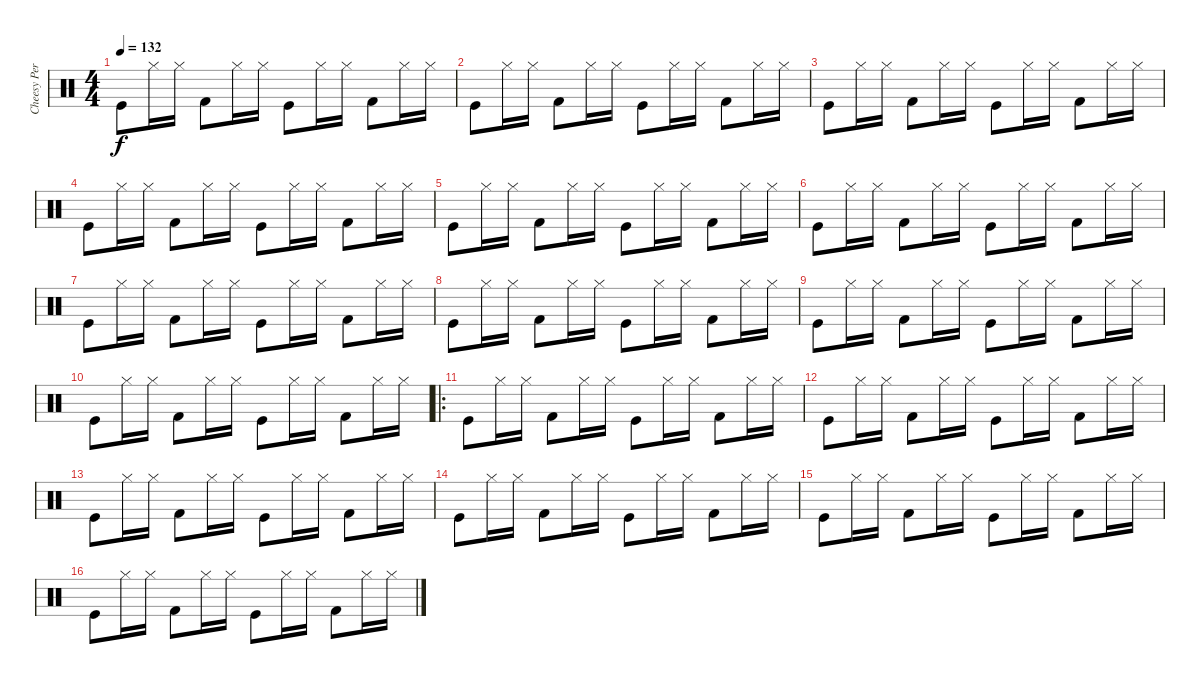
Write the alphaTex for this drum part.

\track ("Cheesy Percussion" "Cheesy Per") {instrument percussion}
\staff {score}
\articulation defaults
\ts (4 4)
\tempo 132
\clef neutral
\ks c "Kick (hit)".8{dy f} "Hi-Hat (closed)".16 "Hi-Hat (closed)".16 "Kick (hit) 2".8 "Hi-Hat (closed)".16 "Hi-Hat (closed)".16 "Kick (hit)".8 "Hi-Hat (closed)".16 "Hi-Hat (closed)".16 "Kick (hit) 2".8 "Hi-Hat (closed)".16 "Hi-Hat (closed)".16
|
"Kick (hit)".8 "Hi-Hat (closed)".16 "Hi-Hat (closed)".16 "Kick (hit) 2".8 "Hi-Hat (closed)".16 "Hi-Hat (closed)".16 "Kick (hit)".8 "Hi-Hat (closed)".16 "Hi-Hat (closed)".16 "Kick (hit) 2".8 "Hi-Hat (closed)".16 "Hi-Hat (closed)".16 |
"Kick (hit)".8 "Hi-Hat (closed)".16 "Hi-Hat (closed)".16 "Kick (hit) 2".8 "Hi-Hat (closed)".16 "Hi-Hat (closed)".16 "Kick (hit)".8 "Hi-Hat (closed)".16 "Hi-Hat (closed)".16 "Kick (hit) 2".8 "Hi-Hat (closed)".16 "Hi-Hat (closed)".16 |
"Kick (hit)".8 "Hi-Hat (closed)".16 "Hi-Hat (closed)".16 "Kick (hit) 2".8 "Hi-Hat (closed)".16 "Hi-Hat (closed)".16 "Kick (hit)".8 "Hi-Hat (closed)".16 "Hi-Hat (closed)".16 "Kick (hit) 2".8 "Hi-Hat (closed)".16 "Hi-Hat (closed)".16 |
"Kick (hit)".8 "Hi-Hat (closed)".16 "Hi-Hat (closed)".16 "Kick (hit) 2".8 "Hi-Hat (closed)".16 "Hi-Hat (closed)".16 "Kick (hit)".8 "Hi-Hat (closed)".16 "Hi-Hat (closed)".16 "Kick (hit) 2".8 "Hi-Hat (closed)".16 "Hi-Hat (closed)".16 |
"Kick (hit)".8 "Hi-Hat (closed)".16 "Hi-Hat (closed)".16 "Kick (hit) 2".8 "Hi-Hat (closed)".16 "Hi-Hat (closed)".16 "Kick (hit)".8 "Hi-Hat (closed)".16 "Hi-Hat (closed)".16 "Kick (hit) 2".8 "Hi-Hat (closed)".16 "Hi-Hat (closed)".16 |
"Kick (hit)".8 "Hi-Hat (closed)".16 "Hi-Hat (closed)".16 "Kick (hit) 2".8 "Hi-Hat (closed)".16 "Hi-Hat (closed)".16 "Kick (hit)".8 "Hi-Hat (closed)".16 "Hi-Hat (closed)".16 "Kick (hit) 2".8 "Hi-Hat (closed)".16 "Hi-Hat (closed)".16 |
"Kick (hit)".8 "Hi-Hat (closed)".16 "Hi-Hat (closed)".16 "Kick (hit) 2".8 "Hi-Hat (closed)".16 "Hi-Hat (closed)".16 "Kick (hit)".8 "Hi-Hat (closed)".16 "Hi-Hat (closed)".16 "Kick (hit) 2".8 "Hi-Hat (closed)".16 "Hi-Hat (closed)".16 |
"Kick (hit)".8 "Hi-Hat (closed)".16 "Hi-Hat (closed)".16 "Kick (hit) 2".8 "Hi-Hat (closed)".16 "Hi-Hat (closed)".16 "Kick (hit)".8 "Hi-Hat (closed)".16 "Hi-Hat (closed)".16 "Kick (hit) 2".8 "Hi-Hat (closed)".16 "Hi-Hat (closed)".16 |
"Kick (hit)".8 "Hi-Hat (closed)".16 "Hi-Hat (closed)".16 "Kick (hit) 2".8 "Hi-Hat (closed)".16 "Hi-Hat (closed)".16 "Kick (hit)".8 "Hi-Hat (closed)".16 "Hi-Hat (closed)".16 "Kick (hit) 2".8 "Hi-Hat (closed)".16 "Hi-Hat (closed)".16 |
\ro "Kick (hit)".8 "Hi-Hat (closed)".16 "Hi-Hat (closed)".16 "Kick (hit) 2".8 "Hi-Hat (closed)".16 "Hi-Hat (closed)".16 "Kick (hit)".8 "Hi-Hat (closed)".16 "Hi-Hat (closed)".16 "Kick (hit) 2".8 "Hi-Hat (closed)".16 "Hi-Hat (closed)".16
|
"Kick (hit)".8 "Hi-Hat (closed)".16 "Hi-Hat (closed)".16 "Kick (hit) 2".8 "Hi-Hat (closed)".16 "Hi-Hat (closed)".16 "Kick (hit)".8 "Hi-Hat (closed)".16 "Hi-Hat (closed)".16 "Kick (hit) 2".8 "Hi-Hat (closed)".16 "Hi-Hat (closed)".16 |
"Kick (hit)".8 "Hi-Hat (closed)".16 "Hi-Hat (closed)".16 "Kick (hit) 2".8 "Hi-Hat (closed)".16 "Hi-Hat (closed)".16 "Kick (hit)".8 "Hi-Hat (closed)".16 "Hi-Hat (closed)".16 "Kick (hit) 2".8 "Hi-Hat (closed)".16 "Hi-Hat (closed)".16 |
"Kick (hit)".8 "Hi-Hat (closed)".16 "Hi-Hat (closed)".16 "Kick (hit) 2".8 "Hi-Hat (closed)".16 "Hi-Hat (closed)".16 "Kick (hit)".8 "Hi-Hat (closed)".16 "Hi-Hat (closed)".16 "Kick (hit) 2".8 "Hi-Hat (closed)".16 "Hi-Hat (closed)".16 |
"Kick (hit)".8 "Hi-Hat (closed)".16 "Hi-Hat (closed)".16 "Kick (hit) 2".8 "Hi-Hat (closed)".16 "Hi-Hat (closed)".16 "Kick (hit)".8 "Hi-Hat (closed)".16 "Hi-Hat (closed)".16 "Kick (hit) 2".8 "Hi-Hat (closed)".16 "Hi-Hat (closed)".16 |
"Kick (hit)".8 "Hi-Hat (closed)".16 "Hi-Hat (closed)".16 "Kick (hit) 2".8 "Hi-Hat (closed)".16 "Hi-Hat (closed)".16 "Kick (hit)".8 "Hi-Hat (closed)".16 "Hi-Hat (closed)".16 "Kick (hit) 2".8 "Hi-Hat (closed)".16 "Hi-Hat (closed)".16
